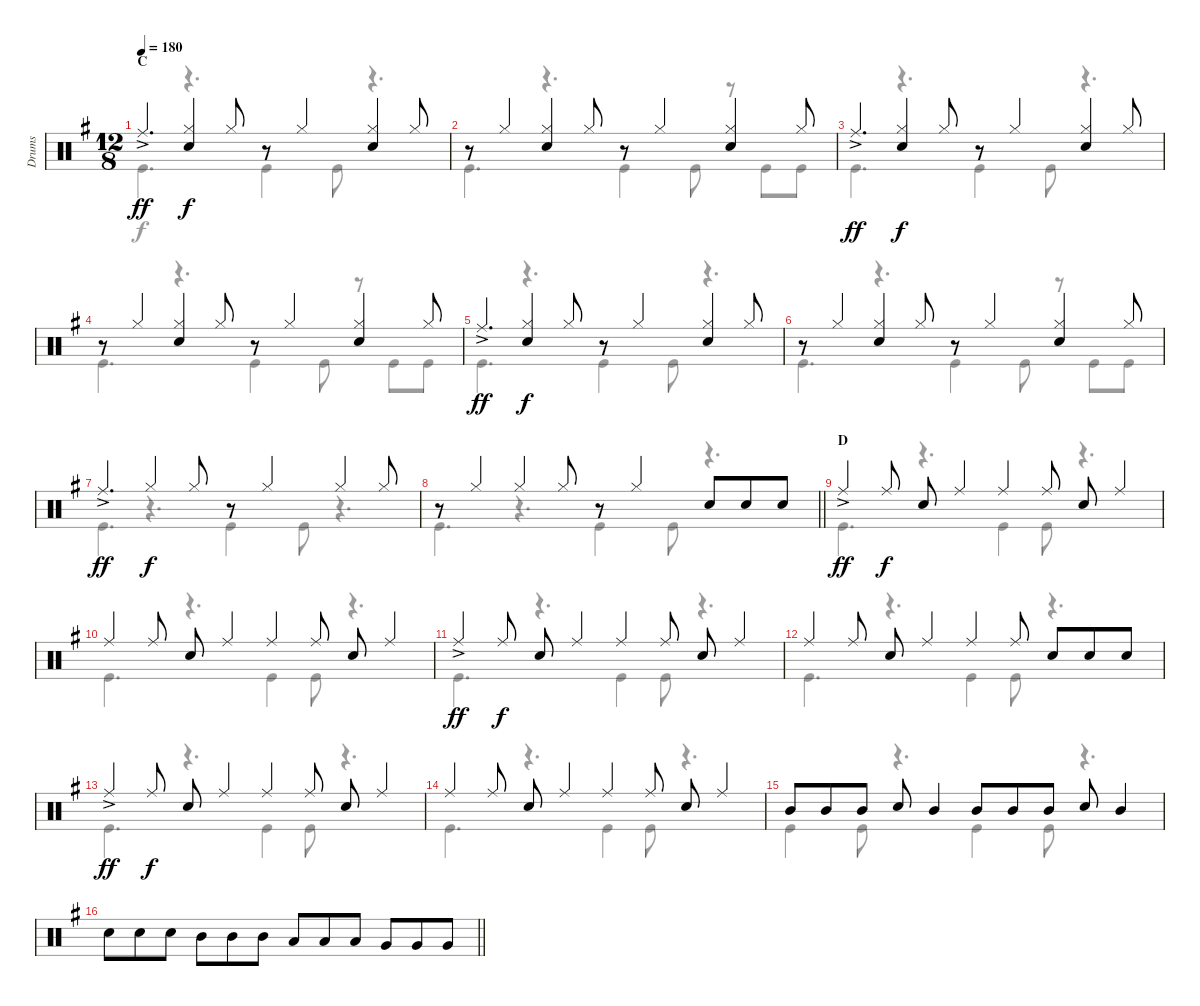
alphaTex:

\track ("Drums" "Drums") {instrument percussion}
\staff {score}
\articulation defaults
\voice
\ts (12 8)
\section ("" "C")
\tempo 180
\clef neutral
\ks g "Ride (middle)"{ac}.4{d dy ff}
("Hi-Hat (closed)" "Snare (hit) 2").4{dy f} "Hi-Hat (closed)".8 r.8 "Hi-Hat (closed)".4 ("Hi-Hat (closed)" "Snare (hit) 2").4 "Hi-Hat (closed)".8 |
r.8 "Hi-Hat (closed)".4 ("Hi-Hat (closed)" "Snare (hit) 2").4 "Hi-Hat (closed)".8 r.8 "Hi-Hat (closed)".4 ("Hi-Hat (closed)" "Snare (hit) 2").4 "Hi-Hat (closed)".8 |
"Ride (middle)"{ac}.4{d dy ff} ("Hi-Hat (closed)" "Snare (hit) 2").4{dy f} "Hi-Hat (closed)".8 r.8 "Hi-Hat (closed)".4 ("Hi-Hat (closed)" "Snare (hit) 2").4 "Hi-Hat (closed)".8 |
r.8 "Hi-Hat (closed)".4 ("Hi-Hat (closed)" "Snare (hit) 2").4 "Hi-Hat (closed)".8 r.8 "Hi-Hat (closed)".4 ("Hi-Hat (closed)" "Snare (hit) 2").4 "Hi-Hat (closed)".8 |
"Ride (middle)"{ac}.4{d dy ff} ("Hi-Hat (closed)" "Snare (hit) 2").4{dy f} "Hi-Hat (closed)".8 r.8 "Hi-Hat (closed)".4 ("Hi-Hat (closed)" "Snare (hit) 2").4 "Hi-Hat (closed)".8 |
r.8 "Hi-Hat (closed)".4 ("Hi-Hat (closed)" "Snare (hit) 2").4 "Hi-Hat (closed)".8 r.8 "Hi-Hat (closed)".4 ("Hi-Hat (closed)" "Snare (hit) 2").4 "Hi-Hat (closed)".8 |
"Ride (middle)"{ac}.4{d dy ff} "Hi-Hat (closed)".4{dy f} "Hi-Hat (closed)".8 r.8 "Hi-Hat (closed)".4 "Hi-Hat (closed)".4 "Hi-Hat (closed)".8 |
\barLineRight lightlight
r.8 "Hi-Hat (closed)".4 "Hi-Hat (closed)".4 "Hi-Hat (closed)".8 r.8 "Hi-Hat (closed)".4 "Snare (hit) 2".8 "Snare (hit) 2".8 "Snare (hit) 2".8 |
\section ("" "D")
"Ride (middle)"{ac}.4{dy ff} "Ride (middle)".8{dy f} "Snare (hit) 2".8 "Ride (middle)".4 "Ride (middle)".4 "Ride (middle)".8 "Snare (hit) 2".8 "Ride (middle)".4 |
"Ride (middle)".4 "Ride (middle)".8 "Snare (hit) 2".8 "Ride (middle)".4 "Ride (middle)".4 "Ride (middle)".8 "Snare (hit) 2".8 "Ride (middle)".4 |
"Ride (middle)"{ac}.4{dy ff} "Ride (middle)".8{dy f} "Snare (hit) 2".8 "Ride (middle)".4 "Ride (middle)".4 "Ride (middle)".8 "Snare (hit) 2".8 "Ride (middle)".4 |
"Ride (middle)".4 "Ride (middle)".8 "Snare (hit) 2".8 "Ride (middle)".4 "Ride (middle)".4 "Ride (middle)".8 "Snare (hit) 2".8 "Snare (hit) 2".8 "Snare (hit) 2".8 |
"Ride (middle)"{ac}.4{dy ff} "Ride (middle)".8{dy f} "Snare (hit) 2".8 "Ride (middle)".4 "Ride (middle)".4 "Ride (middle)".8 "Snare (hit) 2".8 "Ride (middle)".4 |
"Ride (middle)".4 "Ride (middle)".8 "Snare (hit) 2".8 "Ride (middle)".4 "Ride (middle)".4 "Ride (middle)".8 "Snare (hit) 2".8 "Ride (middle)".4 |
"Mid Tom (hit)".8 "Mid Tom (hit)".8 "Mid Tom (hit)".8 "Snare (hit) 2".8 "Mid Tom (hit)".4 "Mid Tom (hit)".8 "Mid Tom (hit)".8 "Mid Tom (hit)".8 "Snare (hit) 2".8 "Mid Tom (hit)".4 |
\barLineRight lightlight "Snare (hit) 2".8 "Snare (hit) 2".8 "Snare (hit) 2".8 "Mid Tom (hit)".8 "Mid Tom (hit)".8 "Mid Tom (hit)".8 "Low Tom (hit)".8 "Low Tom (hit)".8 "Low Tom (hit)".8 "Very Low Tom (hit)".8 "Very Low Tom (hit)".8 "Very Low Tom (hit)".8
\voice
\clef neutral
\ottava regular
\simile none
\ks g "Kick (hit)".4{d dy f}
r.4{d} "Kick (hit)".4 "Kick (hit)".8 r.4{d} |
"Kick (hit)".4{d} r.4{d} "Kick (hit)".4 "Kick (hit)".8 r.8 "Kick (hit)".8 "Kick (hit)".8 |
"Kick (hit)".4{d} r.4{d} "Kick (hit)".4 "Kick (hit)".8 r.4{d} |
"Kick (hit)".4{d} r.4{d} "Kick (hit)".4 "Kick (hit)".8 r.8 "Kick (hit)".8 "Kick (hit)".8 |
"Kick (hit)".4{d} r.4{d} "Kick (hit)".4 "Kick (hit)".8 r.4{d} |
"Kick (hit)".4{d} r.4{d} "Kick (hit)".4 "Kick (hit)".8 r.8 "Kick (hit)".8 "Kick (hit)".8 |
"Kick (hit)".4{d} r.4{d} "Kick (hit)".4 "Kick (hit)".8 r.4{d} |
\barLineRight lightlight "Kick (hit)".4{d}
r.4{d} "Kick (hit)".4 "Kick (hit)".8 r.4{d} |
"Kick (hit)".4{d} r.4{d} "Kick (hit)".4 "Kick (hit)".8 r.4{d} |
"Kick (hit)".4{d} r.4{d} "Kick (hit)".4 "Kick (hit)".8 r.4{d} |
"Kick (hit)".4{d} r.4{d} "Kick (hit)".4 "Kick (hit)".8 r.4{d} |
"Kick (hit)".4{d} r.4{d} "Kick (hit)".4 "Kick (hit)".8 r.4{d} |
"Kick (hit)".4{d} r.4{d} "Kick (hit)".4 "Kick (hit)".8 r.4{d} |
"Kick (hit)".4{d} r.4{d} "Kick (hit)".4 "Kick (hit)".8 r.4{d} |
"Kick (hit)".4 "Kick (hit)".8 r.4{d} "Kick (hit)".4 "Kick (hit)".8 r.4{d} |
\barLineRight lightlight
